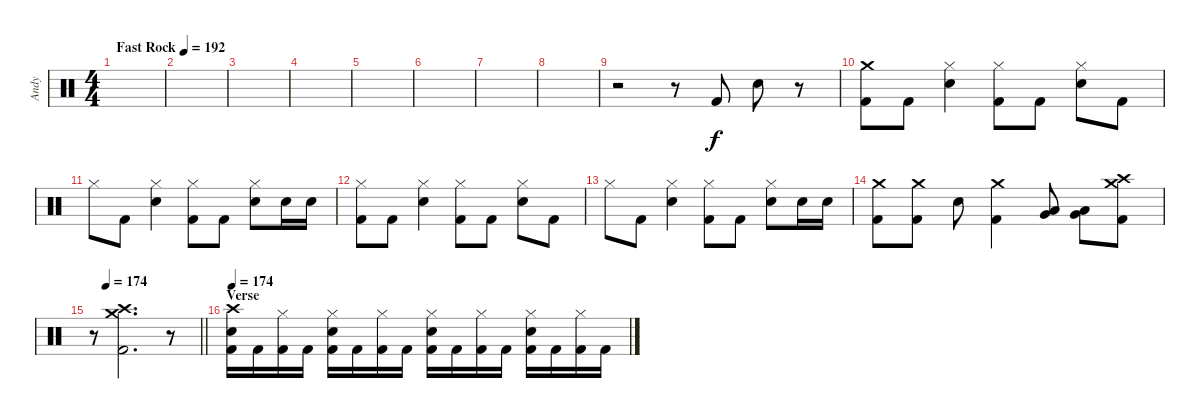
\track ("Andy" "Andy") {instrument percussion}
\staff {score}
\articulation defaults
\ts (4 4)
\tempo (192 "Fast Rock")
\clef neutral
\ks c
|
|
|
|
|
|
|
|
r.2 r.8 "Kick (hit) 2".8 "Electric Snare (hit)".8 r.8 |
("Crash medium (hit)" "Kick (hit) 2").8 "Kick (hit) 2".8 ("Electric Snare (hit)" "Hi-Hat (closed)").4 ("Hi-Hat (closed)" "Kick (hit) 2").8 "Kick (hit) 2".8 ("Electric Snare (hit)" "Hi-Hat (closed)").8 "Kick (hit) 2".8 |
"Hi-Hat (closed)".8 "Kick (hit) 2".8 ("Electric Snare (hit)" "Hi-Hat (closed)").4 ("Hi-Hat (closed)" "Kick (hit) 2").8 "Kick (hit) 2".8 ("Electric Snare (hit)" "Hi-Hat (closed)").8 "Electric Snare (hit)".16 "Electric Snare (hit)".16 |
("Hi-Hat (closed)" "Kick (hit) 2").8 "Kick (hit) 2".8 ("Electric Snare (hit)" "Hi-Hat (closed)").4 ("Hi-Hat (closed)" "Kick (hit) 2").8 "Kick (hit) 2".8 ("Electric Snare (hit)" "Hi-Hat (closed)").8 "Kick (hit) 2".8 |
"Hi-Hat (closed)".8 "Kick (hit) 2".8 ("Electric Snare (hit)" "Hi-Hat (closed)").4 ("Hi-Hat (closed)" "Kick (hit) 2").8 "Kick (hit) 2".8 ("Electric Snare (hit)" "Hi-Hat (closed)").8 "Electric Snare (hit)".16 "Electric Snare (hit)".16 |
("Crash medium (hit)" "Kick (hit) 2").8 ("Crash medium (hit)" "Kick (hit) 2").8 "Electric Snare (hit)".8 ("Crash medium (hit)" "Kick (hit) 2").4 ("Very Low Tom (hit)" "Low Floor Tom (hit)").8 ("Very Low Tom (hit)" "Low Floor Tom (hit)").8 ("Crash high (hit)" "Crash medium (hit)" "Kick (hit) 2").8 |
\tempo (174 0.125)
\barLineRight lightlight
r.8 ("Crash high (hit)" "Crash medium (hit)" "Kick (hit) 2").2{d} r.8 |
\section ("" "Verse")
\tempo 174
("Electric Snare (hit)" "Crash high (hit)" "Kick (hit) 2").16 "Kick (hit) 2".16 ("Hi-Hat (closed)" "Kick (hit) 2").16 "Kick (hit) 2".16 ("Electric Snare (hit)" "Hi-Hat (closed)" "Kick (hit) 2").16 "Kick (hit) 2".16 ("Hi-Hat (closed)" "Kick (hit) 2").16 "Kick (hit) 2".16 ("Electric Snare (hit)" "Hi-Hat (closed)" "Kick (hit) 2").16 "Kick (hit) 2".16 ("Hi-Hat (closed)" "Kick (hit) 2").16 "Kick (hit) 2".16 ("Electric Snare (hit)" "Hi-Hat (closed)" "Kick (hit) 2").16 "Kick (hit) 2".16 ("Hi-Hat (closed)" "Kick (hit) 2").16 "Kick (hit) 2".16
